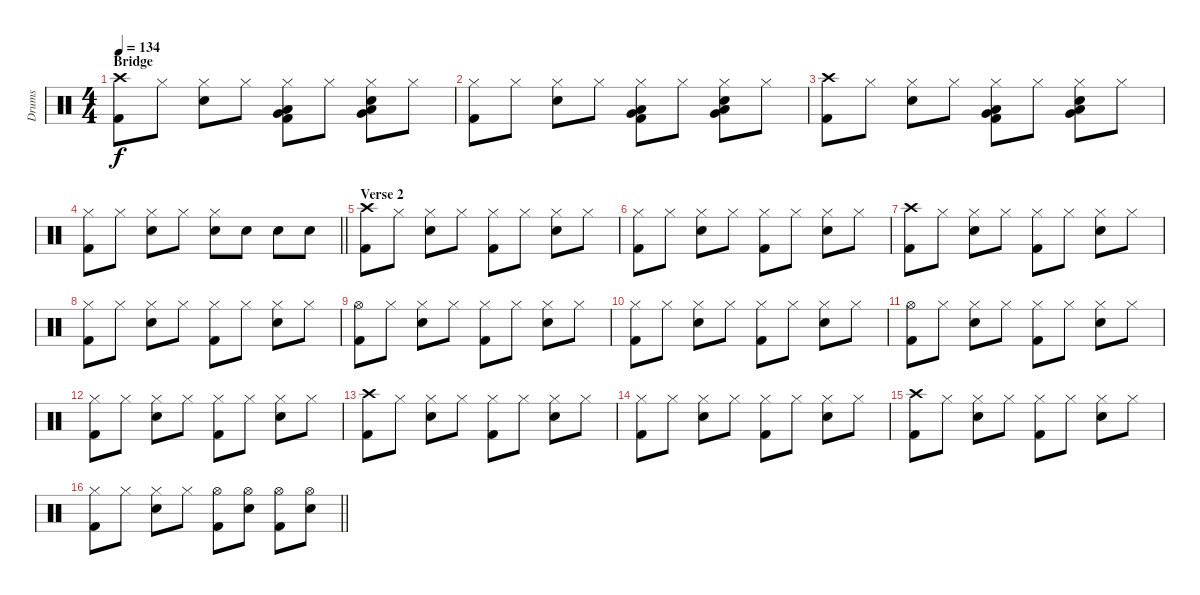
\track ("Drums" "Drums") {instrument percussion}
\staff {score}
\articulation defaults
\ts (4 4)
\section ("" "Bridge")
\tempo 134
\clef neutral
\ks c
("Crash high (hit)" "Kick (hit) 2").8{dy f} "Hi-Hat (closed)".8 ("Hi-Hat (closed)" "Snare (hit) 2").8 "Hi-Hat (closed)".8 ("Very Low Tom (hit)" "Low Tom (hit)" "Hi-Hat (closed)" "Kick (hit) 2").8 "Hi-Hat (closed)".8 ("Very Low Tom (hit)" "Low Tom (hit)" "Hi-Hat (closed)" "Snare (hit) 2").8 "Hi-Hat (closed)".8 |
("Hi-Hat (closed)" "Kick (hit) 2").8 "Hi-Hat (closed)".8 ("Hi-Hat (closed)" "Snare (hit) 2").8 "Hi-Hat (closed)".8 ("Very Low Tom (hit)" "Low Tom (hit)" "Hi-Hat (closed)" "Kick (hit) 2").8 "Hi-Hat (closed)".8 ("Very Low Tom (hit)" "Low Tom (hit)" "Hi-Hat (closed)" "Snare (hit) 2").8 "Hi-Hat (closed)".8 |
("Crash high (hit)" "Kick (hit) 2").8 "Hi-Hat (closed)".8 ("Hi-Hat (closed)" "Snare (hit) 2").8 "Hi-Hat (closed)".8 ("Very Low Tom (hit)" "Low Tom (hit)" "Hi-Hat (closed)" "Kick (hit) 2").8 "Hi-Hat (closed)".8 ("Very Low Tom (hit)" "Low Tom (hit)" "Hi-Hat (closed)" "Snare (hit) 2").8 "Hi-Hat (closed)".8 |
\barLineRight lightlight
("Hi-Hat (closed)" "Kick (hit) 2").8 "Hi-Hat (closed)".8 ("Hi-Hat (closed)" "Snare (hit) 2").8 "Hi-Hat (closed)".8 ("Hi-Hat (closed)" "Snare (hit) 2").8 "Snare (hit) 2".8 "Snare (hit) 2".8 "Snare (hit) 2".8 |
\section ("" "Verse 2")
("Crash high (hit)" "Kick (hit) 2").8 "Hi-Hat (closed)".8 ("Hi-Hat (closed)" "Snare (hit) 2").8 "Hi-Hat (closed)".8 ("Hi-Hat (closed)" "Kick (hit) 2").8 "Hi-Hat (closed)".8 ("Hi-Hat (closed)" "Snare (hit) 2").8 "Hi-Hat (closed)".8 |
("Hi-Hat (closed)" "Kick (hit) 2").8 "Hi-Hat (closed)".8 ("Hi-Hat (closed)" "Snare (hit) 2").8 "Hi-Hat (closed)".8 ("Hi-Hat (closed)" "Kick (hit) 2").8 "Hi-Hat (closed)".8 ("Hi-Hat (closed)" "Snare (hit) 2").8 "Hi-Hat (closed)".8 |
("Crash high (hit)" "Kick (hit) 2").8 "Hi-Hat (closed)".8 ("Hi-Hat (closed)" "Snare (hit) 2").8 "Hi-Hat (closed)".8 ("Hi-Hat (closed)" "Kick (hit) 2").8 "Hi-Hat (closed)".8 ("Hi-Hat (closed)" "Snare (hit) 2").8 "Hi-Hat (closed)".8 |
("Hi-Hat (closed)" "Kick (hit) 2").8 "Hi-Hat (closed)".8 ("Hi-Hat (closed)" "Snare (hit) 2").8 "Hi-Hat (closed)".8 ("Hi-Hat (closed)" "Kick (hit) 2").8 "Hi-Hat (closed)".8 ("Hi-Hat (closed)" "Snare (hit) 2").8 "Hi-Hat (closed)".8 |
("Hi-Hat (open)" "Kick (hit) 2").8 "Hi-Hat (closed)".8 ("Hi-Hat (closed)" "Snare (hit) 2").8 "Hi-Hat (closed)".8 ("Hi-Hat (closed)" "Kick (hit) 2").8 "Hi-Hat (closed)".8 ("Hi-Hat (closed)" "Snare (hit) 2").8 "Hi-Hat (closed)".8 |
("Hi-Hat (closed)" "Kick (hit) 2").8 "Hi-Hat (closed)".8 ("Hi-Hat (closed)" "Snare (hit) 2").8 "Hi-Hat (closed)".8 ("Hi-Hat (closed)" "Kick (hit) 2").8 "Hi-Hat (closed)".8 ("Hi-Hat (closed)" "Snare (hit) 2").8 "Hi-Hat (closed)".8 |
("Hi-Hat (open)" "Kick (hit) 2").8 "Hi-Hat (closed)".8 ("Hi-Hat (closed)" "Snare (hit) 2").8 "Hi-Hat (closed)".8 ("Hi-Hat (closed)" "Kick (hit) 2").8 "Hi-Hat (closed)".8 ("Hi-Hat (closed)" "Snare (hit) 2").8 "Hi-Hat (closed)".8 |
("Hi-Hat (closed)" "Kick (hit) 2").8 "Hi-Hat (closed)".8 ("Hi-Hat (closed)" "Snare (hit) 2").8 "Hi-Hat (closed)".8 ("Hi-Hat (closed)" "Kick (hit) 2").8 "Hi-Hat (closed)".8 ("Hi-Hat (closed)" "Snare (hit) 2").8 "Hi-Hat (closed)".8 |
("Crash high (hit)" "Kick (hit) 2").8 "Hi-Hat (closed)".8 ("Hi-Hat (closed)" "Snare (hit) 2").8 "Hi-Hat (closed)".8 ("Hi-Hat (closed)" "Kick (hit) 2").8 "Hi-Hat (closed)".8 ("Hi-Hat (closed)" "Snare (hit) 2").8 "Hi-Hat (closed)".8 |
("Hi-Hat (closed)" "Kick (hit) 2").8 "Hi-Hat (closed)".8 ("Hi-Hat (closed)" "Snare (hit) 2").8 "Hi-Hat (closed)".8 ("Hi-Hat (closed)" "Kick (hit) 2").8 "Hi-Hat (closed)".8 ("Hi-Hat (closed)" "Snare (hit) 2").8 "Hi-Hat (closed)".8 |
("Crash high (hit)" "Kick (hit) 2").8 "Hi-Hat (closed)".8 ("Hi-Hat (closed)" "Snare (hit) 2").8 "Hi-Hat (closed)".8 ("Hi-Hat (closed)" "Kick (hit) 2").8 "Hi-Hat (closed)".8 ("Hi-Hat (closed)" "Snare (hit) 2").8 "Hi-Hat (closed)".8 |
\barLineRight lightlight
("Hi-Hat (closed)" "Kick (hit) 2").8 "Hi-Hat (closed)".8 ("Hi-Hat (closed)" "Snare (hit) 2").8 "Hi-Hat (closed)".8 ("Hi-Hat (open)" "Kick (hit) 2").8 ("Hi-Hat (open)" "Snare (hit) 2").8 ("Hi-Hat (open)" "Kick (hit) 2").8 ("Hi-Hat (open)" "Snare (hit) 2").8
